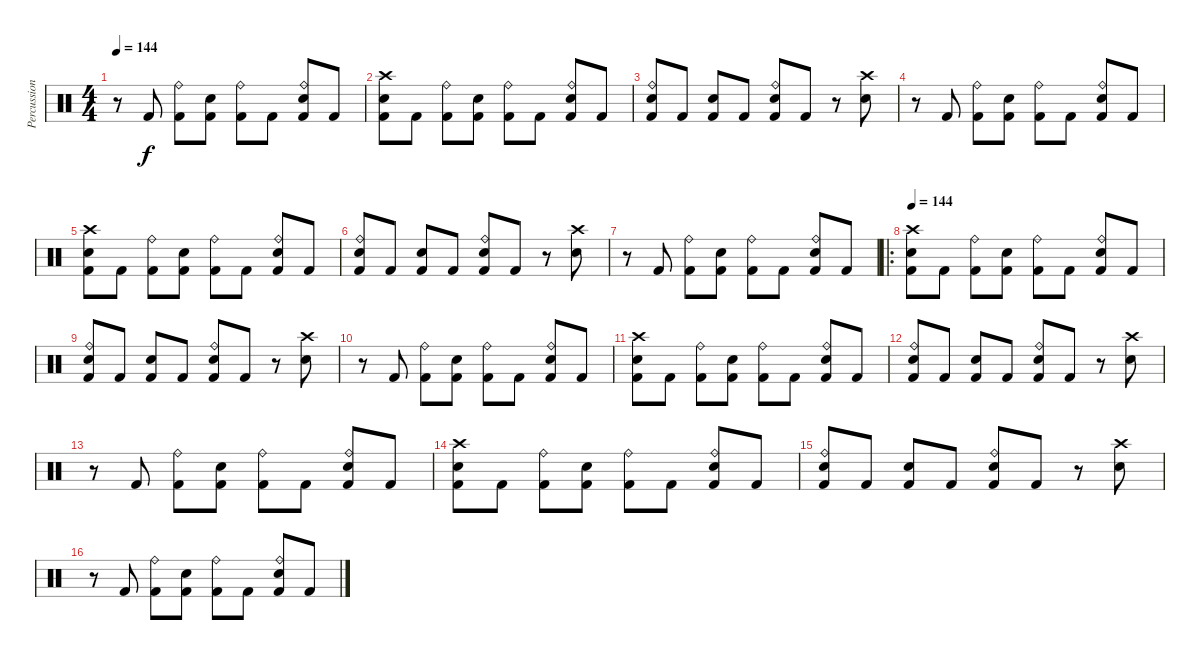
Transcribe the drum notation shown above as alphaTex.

\track ("Percussion" "Percussion") {instrument percussion}
\staff {score}
\articulation defaults
\ts (4 4)
\tempo 144
\clef neutral
\ks c
r.8{dy f} "Kick (hit) 2".8 ("Ride (bell)" "Kick (hit) 2").8 ("Snare (hit) 2" "Kick (hit) 2").8 ("Ride (bell)" "Kick (hit) 2").8 "Kick (hit) 2".8 ("Ride (bell)" "Snare (hit) 2" "Kick (hit) 2").8 "Kick (hit) 2".8 |
("Crash high (hit)" "Snare (hit) 2" "Kick (hit) 2").8 "Kick (hit) 2".8 ("Ride (bell)" "Kick (hit) 2").8 ("Snare (hit) 2" "Kick (hit) 2").8 ("Ride (bell)" "Kick (hit) 2").8 "Kick (hit) 2".8 ("Ride (bell)" "Snare (hit) 2" "Kick (hit) 2").8 "Kick (hit) 2".8 |
("Ride (bell)" "Snare (hit) 2" "Kick (hit) 2").8 "Kick (hit) 2".8 ("Snare (hit) 2" "Kick (hit) 2").8 "Kick (hit) 2".8 ("Ride (bell)" "Snare (hit) 2" "Kick (hit) 2").8 "Kick (hit) 2".8 r.8 ("Crash high (hit)" "Snare (hit) 2").8 |
r.8 "Kick (hit) 2".8 ("Ride (bell)" "Kick (hit) 2").8 ("Snare (hit) 2" "Kick (hit) 2").8 ("Ride (bell)" "Kick (hit) 2").8 "Kick (hit) 2".8 ("Ride (bell)" "Snare (hit) 2" "Kick (hit) 2").8 "Kick (hit) 2".8 |
("Crash high (hit)" "Snare (hit) 2" "Kick (hit) 2").8 "Kick (hit) 2".8 ("Ride (bell)" "Kick (hit) 2").8 ("Snare (hit) 2" "Kick (hit) 2").8 ("Ride (bell)" "Kick (hit) 2").8 "Kick (hit) 2".8 ("Ride (bell)" "Snare (hit) 2" "Kick (hit) 2").8 "Kick (hit) 2".8 |
("Ride (bell)" "Snare (hit) 2" "Kick (hit) 2").8 "Kick (hit) 2".8 ("Snare (hit) 2" "Kick (hit) 2").8 "Kick (hit) 2".8 ("Ride (bell)" "Snare (hit) 2" "Kick (hit) 2").8 "Kick (hit) 2".8 r.8 ("Crash high (hit)" "Snare (hit) 2").8 |
r.8 "Kick (hit) 2".8 ("Ride (bell)" "Kick (hit) 2").8 ("Snare (hit) 2" "Kick (hit) 2").8 ("Ride (bell)" "Kick (hit) 2").8 "Kick (hit) 2".8 ("Ride (bell)" "Snare (hit) 2" "Kick (hit) 2").8 "Kick (hit) 2".8 |
\ro
\tempo 144
("Crash high (hit)" "Snare (hit) 2" "Kick (hit) 2").8 "Kick (hit) 2".8 ("Ride (bell)" "Kick (hit) 2").8 ("Snare (hit) 2" "Kick (hit) 2").8 ("Ride (bell)" "Kick (hit) 2").8 "Kick (hit) 2".8 ("Ride (bell)" "Snare (hit) 2" "Kick (hit) 2").8 "Kick (hit) 2".8 |
("Ride (bell)" "Snare (hit) 2" "Kick (hit) 2").8 "Kick (hit) 2".8 ("Snare (hit) 2" "Kick (hit) 2").8 "Kick (hit) 2".8 ("Ride (bell)" "Snare (hit) 2" "Kick (hit) 2").8 "Kick (hit) 2".8 r.8 ("Crash high (hit)" "Snare (hit) 2").8 |
r.8 "Kick (hit) 2".8 ("Ride (bell)" "Kick (hit) 2").8 ("Snare (hit) 2" "Kick (hit) 2").8 ("Ride (bell)" "Kick (hit) 2").8 "Kick (hit) 2".8 ("Ride (bell)" "Snare (hit) 2" "Kick (hit) 2").8 "Kick (hit) 2".8 |
("Crash high (hit)" "Snare (hit) 2" "Kick (hit) 2").8 "Kick (hit) 2".8 ("Ride (bell)" "Kick (hit) 2").8 ("Snare (hit) 2" "Kick (hit) 2").8 ("Ride (bell)" "Kick (hit) 2").8 "Kick (hit) 2".8 ("Ride (bell)" "Snare (hit) 2" "Kick (hit) 2").8 "Kick (hit) 2".8 |
("Ride (bell)" "Snare (hit) 2" "Kick (hit) 2").8 "Kick (hit) 2".8 ("Snare (hit) 2" "Kick (hit) 2").8 "Kick (hit) 2".8 ("Ride (bell)" "Snare (hit) 2" "Kick (hit) 2").8 "Kick (hit) 2".8 r.8 ("Crash high (hit)" "Snare (hit) 2").8 |
r.8 "Kick (hit) 2".8 ("Ride (bell)" "Kick (hit) 2").8 ("Snare (hit) 2" "Kick (hit) 2").8 ("Ride (bell)" "Kick (hit) 2").8 "Kick (hit) 2".8 ("Ride (bell)" "Snare (hit) 2" "Kick (hit) 2").8 "Kick (hit) 2".8 |
("Crash high (hit)" "Snare (hit) 2" "Kick (hit) 2").8 "Kick (hit) 2".8 ("Ride (bell)" "Kick (hit) 2").8 ("Snare (hit) 2" "Kick (hit) 2").8 ("Ride (bell)" "Kick (hit) 2").8 "Kick (hit) 2".8 ("Ride (bell)" "Snare (hit) 2" "Kick (hit) 2").8 "Kick (hit) 2".8 |
("Ride (bell)" "Snare (hit) 2" "Kick (hit) 2").8 "Kick (hit) 2".8 ("Snare (hit) 2" "Kick (hit) 2").8 "Kick (hit) 2".8 ("Ride (bell)" "Snare (hit) 2" "Kick (hit) 2").8 "Kick (hit) 2".8 r.8 ("Crash high (hit)" "Snare (hit) 2").8 |
r.8 "Kick (hit) 2".8 ("Ride (bell)" "Kick (hit) 2").8 ("Snare (hit) 2" "Kick (hit) 2").8 ("Ride (bell)" "Kick (hit) 2").8 "Kick (hit) 2".8 ("Ride (bell)" "Snare (hit) 2" "Kick (hit) 2").8 "Kick (hit) 2".8
